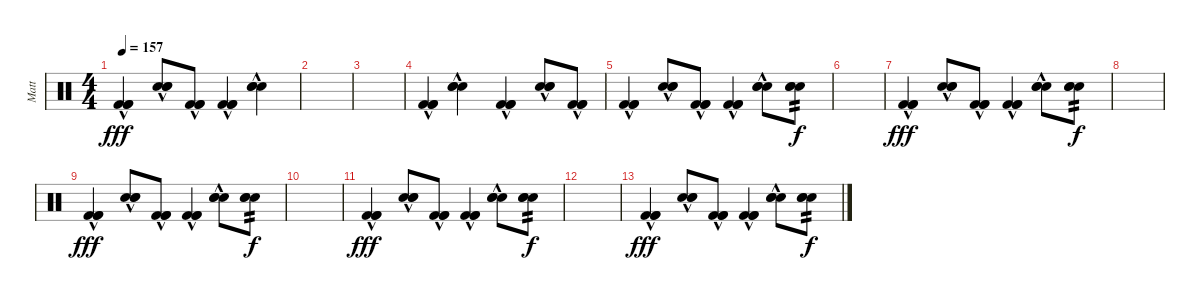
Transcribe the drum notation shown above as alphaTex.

\track ("Matt" "Matt") {instrument percussion}
\staff {score}
\articulation defaults
\ts (4 4)
\tempo 157
\clef neutral
\ks c
("Kick (hit) 2"{hac} "Kick (hit) 2"{hac} "Kick (hit) 2"{hac}).4{dy fff} ("Snare (hit) 2"{hac} "Snare (hit) 2"{hac} "Snare (hit) 2"{hac}).8 ("Kick (hit) 2"{hac} "Kick (hit) 2"{hac} "Kick (hit) 2"{hac}).8 ("Kick (hit) 2"{hac} "Kick (hit) 2"{hac} "Kick (hit) 2"{hac}).4 ("Snare (hit) 2"{hac} "Snare (hit) 2"{hac} "Snare (hit) 2"{hac}).4 |
|
|
("Kick (hit) 2"{hac} "Kick (hit) 2"{hac} "Kick (hit) 2"{hac}).4 ("Snare (hit) 2"{hac} "Snare (hit) 2"{hac} "Snare (hit) 2"{hac}).4 ("Kick (hit) 2"{hac} "Kick (hit) 2"{hac} "Kick (hit) 2"{hac}).4 ("Snare (hit) 2"{hac} "Snare (hit) 2"{hac} "Snare (hit) 2"{hac}).8 ("Kick (hit) 2"{hac} "Kick (hit) 2"{hac} "Kick (hit) 2"{hac}).8 |
("Kick (hit) 2"{hac} "Kick (hit) 2"{hac} "Kick (hit) 2"{hac}).4 ("Snare (hit) 2"{hac} "Snare (hit) 2"{hac} "Snare (hit) 2"{hac}).8 ("Kick (hit) 2"{hac} "Kick (hit) 2"{hac} "Kick (hit) 2"{hac}).8 ("Kick (hit) 2"{hac} "Kick (hit) 2"{hac} "Kick (hit) 2"{hac}).4 ("Snare (hit) 2"{hac} "Snare (hit) 2"{hac} "Snare (hit) 2"{hac}).8 ("Snare (hit) 2" "Snare (hit) 2" "Snare (hit) 2").8{tp 2 dy f} |
|
("Kick (hit) 2"{hac} "Kick (hit) 2"{hac} "Kick (hit) 2"{hac}).4{dy fff} ("Snare (hit) 2"{hac} "Snare (hit) 2"{hac} "Snare (hit) 2"{hac}).8 ("Kick (hit) 2"{hac} "Kick (hit) 2"{hac} "Kick (hit) 2"{hac}).8 ("Kick (hit) 2"{hac} "Kick (hit) 2"{hac} "Kick (hit) 2"{hac}).4 ("Snare (hit) 2"{hac} "Snare (hit) 2"{hac} "Snare (hit) 2"{hac}).8 ("Snare (hit) 2" "Snare (hit) 2" "Snare (hit) 2").8{tp 2 dy f} |
|
("Kick (hit) 2"{hac} "Kick (hit) 2"{hac} "Kick (hit) 2"{hac}).4{dy fff} ("Snare (hit) 2"{hac} "Snare (hit) 2"{hac} "Snare (hit) 2"{hac}).8 ("Kick (hit) 2"{hac} "Kick (hit) 2"{hac} "Kick (hit) 2"{hac}).8 ("Kick (hit) 2"{hac} "Kick (hit) 2"{hac} "Kick (hit) 2"{hac}).4 ("Snare (hit) 2"{hac} "Snare (hit) 2"{hac} "Snare (hit) 2"{hac}).8 ("Snare (hit) 2" "Snare (hit) 2" "Snare (hit) 2").8{tp 2 dy f} |
|
("Kick (hit) 2"{hac} "Kick (hit) 2"{hac} "Kick (hit) 2"{hac}).4{dy fff} ("Snare (hit) 2"{hac} "Snare (hit) 2"{hac} "Snare (hit) 2"{hac}).8 ("Kick (hit) 2"{hac} "Kick (hit) 2"{hac} "Kick (hit) 2"{hac}).8 ("Kick (hit) 2"{hac} "Kick (hit) 2"{hac} "Kick (hit) 2"{hac}).4 ("Snare (hit) 2"{hac} "Snare (hit) 2"{hac} "Snare (hit) 2"{hac}).8 ("Snare (hit) 2" "Snare (hit) 2" "Snare (hit) 2").8{tp 2 dy f} |
|
("Kick (hit) 2"{hac} "Kick (hit) 2"{hac} "Kick (hit) 2"{hac}).4{dy fff} ("Snare (hit) 2"{hac} "Snare (hit) 2"{hac} "Snare (hit) 2"{hac}).8 ("Kick (hit) 2"{hac} "Kick (hit) 2"{hac} "Kick (hit) 2"{hac}).8 ("Kick (hit) 2"{hac} "Kick (hit) 2"{hac} "Kick (hit) 2"{hac}).4 ("Snare (hit) 2"{hac} "Snare (hit) 2"{hac} "Snare (hit) 2"{hac}).8 ("Snare (hit) 2" "Snare (hit) 2" "Snare (hit) 2").8{tp 2 dy f}
